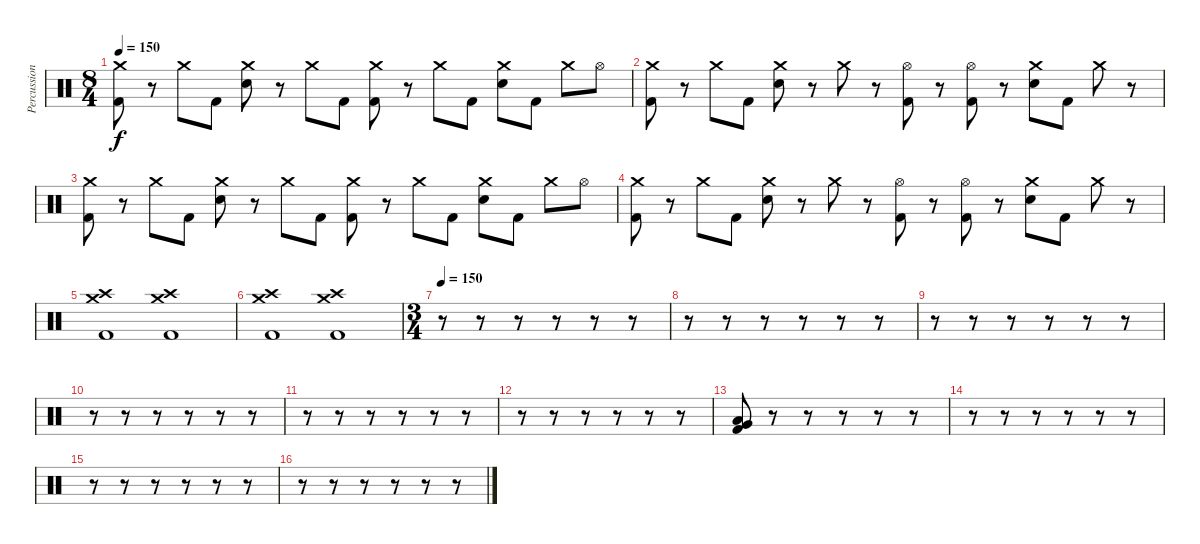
\track ("Percussion" "Percussion") {instrument percussion}
\staff {score}
\articulation defaults
\ts (8 4)
\tempo 150
\clef neutral
\ks c
("Crash medium (hit)" "Kick (hit) 2").8{dy f} r.8 "Crash medium (hit)".8 "Kick (hit) 2".8 ("Crash medium (hit)" "Electric Snare (hit)").8 r.8 "Crash medium (hit)".8 "Kick (hit) 2".8 ("Crash medium (hit)" "Kick (hit) 2").8 r.8 "Crash medium (hit)".8 "Kick (hit) 2".8 ("Crash medium (hit)" "Electric Snare (hit)").8 "Kick (hit) 2".8 "Crash medium (hit)".8 "Hi-Hat (open)".8 |
("Crash medium (hit)" "Kick (hit) 2").8 r.8 "Crash medium (hit)".8 "Kick (hit) 2".8 ("Crash medium (hit)" "Electric Snare (hit)").8 r.8 "Crash medium (hit)".8 r.8 ("Hi-Hat (open)" "Kick (hit) 2").8 r.8 ("Hi-Hat (open)" "Kick (hit) 2").8 r.8 ("Crash medium (hit)" "Electric Snare (hit)").8 "Kick (hit) 2".8 "Crash medium (hit)".8 r.8 |
("Crash medium (hit)" "Kick (hit) 2").8 r.8 "Crash medium (hit)".8 "Kick (hit) 2".8 ("Crash medium (hit)" "Electric Snare (hit)").8 r.8 "Crash medium (hit)".8 "Kick (hit) 2".8 ("Crash medium (hit)" "Kick (hit) 2").8 r.8 "Crash medium (hit)".8 "Kick (hit) 2".8 ("Crash medium (hit)" "Electric Snare (hit)").8 "Kick (hit) 2".8 "Crash medium (hit)".8 "Hi-Hat (open)".8 |
("Crash medium (hit)" "Kick (hit) 2").8 r.8 "Crash medium (hit)".8 "Kick (hit) 2".8 ("Crash medium (hit)" "Electric Snare (hit)").8 r.8 "Crash medium (hit)".8 r.8 ("Hi-Hat (open)" "Kick (hit) 2").8 r.8 ("Hi-Hat (open)" "Kick (hit) 2").8 r.8 ("Crash medium (hit)" "Electric Snare (hit)").8 "Kick (hit) 2".8 "Crash medium (hit)".8 r.8 |
("Crash high (hit)" "Crash medium (hit)" "Kick (hit) 2").1 ("Crash high (hit)" "Crash medium (hit)" "Kick (hit) 2").1 |
("Crash high (hit)" "Crash medium (hit)" "Kick (hit) 2").1 ("Crash high (hit)" "Crash medium (hit)" "Kick (hit) 2").1 |
\ts (3 4)
\tempo 150
r.8 r.8 r.8 r.8 r.8 r.8 |
r.8 r.8 r.8 r.8 r.8 r.8 |
r.8 r.8 r.8 r.8 r.8 r.8 |
r.8 r.8 r.8 r.8 r.8 r.8 |
r.8 r.8 r.8 r.8 r.8 r.8 |
r.8 r.8 r.8 r.8 r.8 r.8 |
("Very Low Tom (hit)" "Low Floor Tom (hit)" "Kick (hit) 2").8 r.8 r.8 r.8 r.8 r.8 |
r.8 r.8 r.8 r.8 r.8 r.8 |
r.8 r.8 r.8 r.8 r.8 r.8 |
r.8 r.8 r.8 r.8 r.8 r.8
